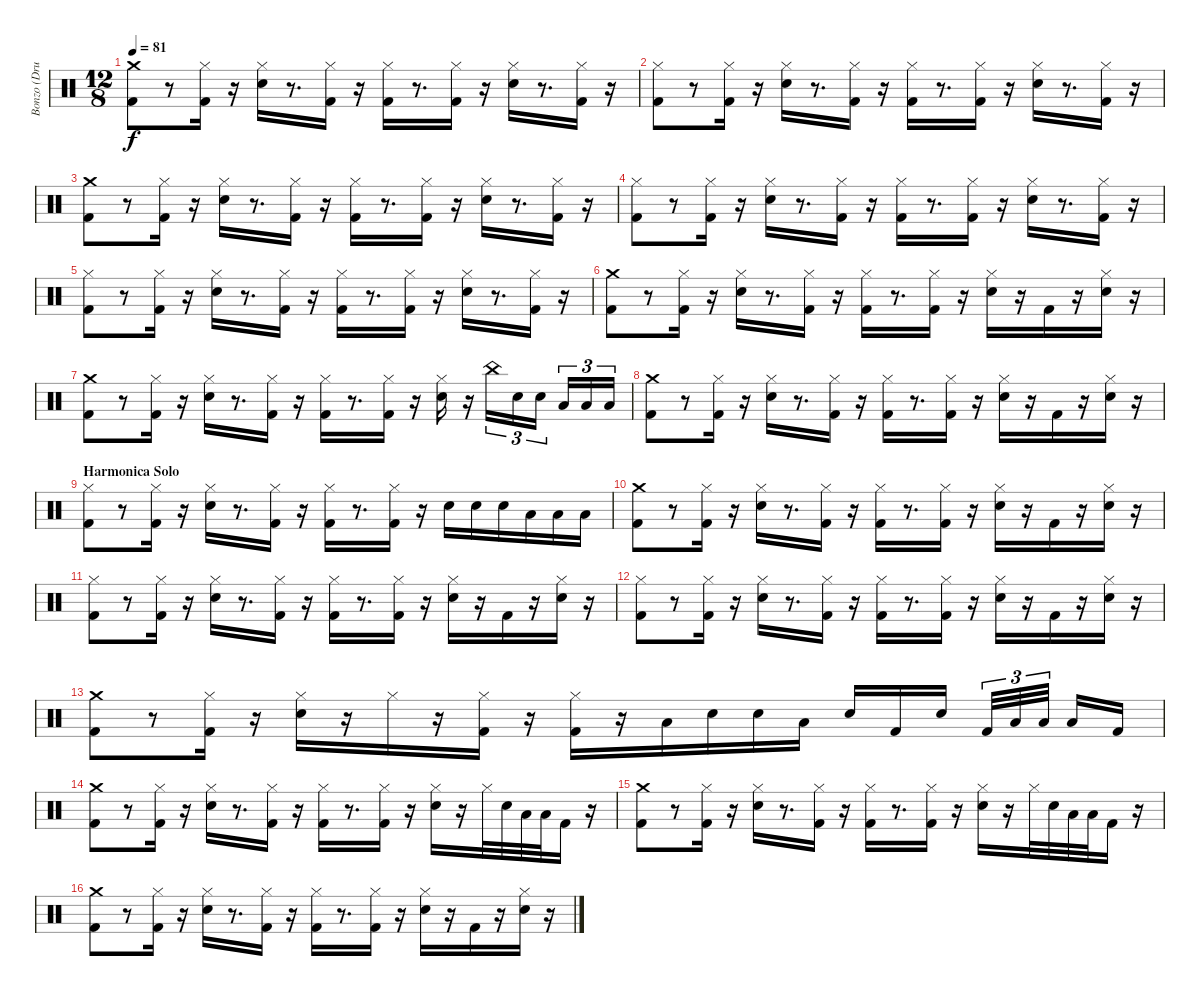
\track ("Bonzo (Drums)" "Bonzo (Dru") {instrument percussion}
\staff {score}
\articulation defaults
\ts (12 8)
\tempo 81
\clef neutral
\ks c
("Kick (hit) 2" "Crash medium (hit)").8{dy f} r.8 ("Kick (hit) 2" "Hi-Hat (closed)").16 r.16 ("Hi-Hat (closed)" "Electric Snare (hit)").16 r.8{d} ("Hi-Hat (closed)" "Kick (hit) 2").16 r.16 ("Hi-Hat (closed)" "Kick (hit) 2").16 r.8{d} ("Hi-Hat (closed)" "Kick (hit) 2").16 r.16 ("Hi-Hat (closed)" "Electric Snare (hit)").16 r.8{d} ("Hi-Hat (closed)" "Kick (hit) 2").16 r.16 |
("Kick (hit) 2" "Hi-Hat (closed)").8 r.8 ("Kick (hit) 2" "Hi-Hat (closed)").16 r.16 ("Hi-Hat (closed)" "Electric Snare (hit)").16 r.8{d} ("Hi-Hat (closed)" "Kick (hit) 2").16 r.16 ("Hi-Hat (closed)" "Kick (hit) 2").16 r.8{d} ("Hi-Hat (closed)" "Kick (hit) 2").16 r.16 ("Hi-Hat (closed)" "Electric Snare (hit)").16 r.8{d} ("Hi-Hat (closed)" "Kick (hit) 2").16 r.16 |
("Kick (hit) 2" "Crash medium (hit)").8 r.8 ("Kick (hit) 2" "Hi-Hat (closed)").16 r.16 ("Hi-Hat (closed)" "Electric Snare (hit)").16 r.8{d} ("Hi-Hat (closed)" "Kick (hit) 2").16 r.16 ("Hi-Hat (closed)" "Kick (hit) 2").16 r.8{d} ("Hi-Hat (closed)" "Kick (hit) 2").16 r.16 ("Hi-Hat (closed)" "Electric Snare (hit)").16 r.8{d} ("Hi-Hat (closed)" "Kick (hit) 2").16 r.16 |
("Kick (hit) 2" "Hi-Hat (closed)").8 r.8 ("Kick (hit) 2" "Hi-Hat (closed)").16 r.16 ("Hi-Hat (closed)" "Electric Snare (hit)").16 r.8{d} ("Hi-Hat (closed)" "Kick (hit) 2").16 r.16 ("Hi-Hat (closed)" "Kick (hit) 2").16 r.8{d} ("Hi-Hat (closed)" "Kick (hit) 2").16 r.16 ("Hi-Hat (closed)" "Electric Snare (hit)").16 r.8{d} ("Hi-Hat (closed)" "Kick (hit) 2").16 r.16 |
("Kick (hit) 2" "Hi-Hat (closed)").8 r.8 ("Kick (hit) 2" "Hi-Hat (closed)").16 r.16 ("Hi-Hat (closed)" "Electric Snare (hit)").16 r.8{d} ("Hi-Hat (closed)" "Kick (hit) 2").16 r.16 ("Hi-Hat (closed)" "Kick (hit) 2").16 r.8{d} ("Hi-Hat (closed)" "Kick (hit) 2").16 r.16 ("Hi-Hat (closed)" "Electric Snare (hit)").16 r.8{d} ("Hi-Hat (closed)" "Kick (hit) 2").16 r.16 |
("Kick (hit) 2" "Crash medium (hit)").8 r.8 ("Kick (hit) 2" "Hi-Hat (closed)").16 r.16 ("Hi-Hat (closed)" "Electric Snare (hit)").16 r.8{d} ("Hi-Hat (closed)" "Kick (hit) 2").16 r.16 ("Hi-Hat (closed)" "Kick (hit) 2").16 r.8{d} ("Hi-Hat (closed)" "Kick (hit) 2").16 r.16 ("Hi-Hat (closed)" "Electric Snare (hit)").16 r.16 "Kick (hit) 2".16 r.16 ("Hi-Hat (closed)" "Electric Snare (hit)").16 r.16 |
("Kick (hit) 2" "Crash medium (hit)").8 r.8 ("Kick (hit) 2" "Hi-Hat (closed)").16 r.16 ("Hi-Hat (closed)" "Electric Snare (hit)").16 r.8{d} ("Hi-Hat (closed)" "Kick (hit) 2").16 r.16 ("Hi-Hat (closed)" "Kick (hit) 2").16 r.8{d} ("Hi-Hat (closed)" "Kick (hit) 2").16 r.16 ("Hi-Hat (closed)" "Electric Snare (hit)").16 r.16 "China (hit)".16{tu (3 2)} "Electric Snare (hit)".16{tu (3 2)} "Electric Snare (hit)".16{tu (3 2)} "Low Tom (hit)".16{tu (3 2)} "Low Tom (hit)".16{tu (3 2)} "Low Floor Tom (hit)".16{tu (3 2)} |
("Kick (hit) 2" "Crash medium (hit)").8 r.8 ("Kick (hit) 2" "Hi-Hat (closed)").16 r.16 ("Hi-Hat (closed)" "Electric Snare (hit)").16 r.8{d} ("Hi-Hat (closed)" "Kick (hit) 2").16 r.16 ("Hi-Hat (closed)" "Kick (hit) 2").16 r.8{d} ("Hi-Hat (closed)" "Kick (hit) 2").16 r.16 ("Hi-Hat (closed)" "Electric Snare (hit)").16 r.16 "Kick (hit) 2".16 r.16 ("Hi-Hat (closed)" "Electric Snare (hit)").16 r.16 |
\section ("" "Harmonica Solo")
("Kick (hit) 2" "Hi-Hat (closed)").8 r.8 ("Kick (hit) 2" "Hi-Hat (closed)").16 r.16 ("Hi-Hat (closed)" "Electric Snare (hit)").16 r.8{d} ("Hi-Hat (closed)" "Kick (hit) 2").16 r.16 ("Hi-Hat (closed)" "Kick (hit) 2").16 r.8{d} ("Hi-Hat (closed)" "Kick (hit) 2").16 r.16 "Electric Snare (hit)".16 "Electric Snare (hit)".16 "Electric Snare (hit)".16 "Low Tom (hit)".16 "Low Floor Tom (hit)".16 "Low Floor Tom (hit)".16 |
("Kick (hit) 2" "Crash medium (hit)").8 r.8 ("Kick (hit) 2" "Hi-Hat (closed)").16 r.16 ("Hi-Hat (closed)" "Electric Snare (hit)").16 r.8{d} ("Hi-Hat (closed)" "Kick (hit) 2").16 r.16 ("Hi-Hat (closed)" "Kick (hit) 2").16 r.8{d} ("Hi-Hat (closed)" "Kick (hit) 2").16 r.16 ("Hi-Hat (closed)" "Electric Snare (hit)").16 r.16 "Kick (hit) 2".16 r.16 ("Hi-Hat (closed)" "Electric Snare (hit)").16 r.16 |
("Kick (hit) 2" "Hi-Hat (closed)").8 r.8 ("Kick (hit) 2" "Hi-Hat (closed)").16 r.16 ("Hi-Hat (closed)" "Electric Snare (hit)").16 r.8{d} ("Hi-Hat (closed)" "Kick (hit) 2").16 r.16 ("Hi-Hat (closed)" "Kick (hit) 2").16 r.8{d} ("Hi-Hat (closed)" "Kick (hit) 2").16 r.16 ("Hi-Hat (closed)" "Electric Snare (hit)").16 r.16 "Kick (hit) 2".16 r.16 ("Hi-Hat (closed)" "Electric Snare (hit)").16 r.16 |
("Kick (hit) 2" "Hi-Hat (closed)").8 r.8 ("Kick (hit) 2" "Hi-Hat (closed)").16 r.16 ("Hi-Hat (closed)" "Electric Snare (hit)").16 r.8{d} ("Hi-Hat (closed)" "Kick (hit) 2").16 r.16 ("Hi-Hat (closed)" "Kick (hit) 2").16 r.8{d} ("Hi-Hat (closed)" "Kick (hit) 2").16 r.16 ("Hi-Hat (closed)" "Electric Snare (hit)").16 r.16 "Kick (hit) 2".16 r.16 ("Hi-Hat (closed)" "Electric Snare (hit)").16 r.16 |
("Crash medium (hit)" "Kick (hit) 2").8 r.8 ("Hi-Hat (closed)" "Kick (hit) 2").16 r.16 ("Hi-Hat (closed)" "Electric Snare (hit)").16 r.16 "Hi-Hat (closed)".16 r.16 ("Hi-Hat (closed)" "Kick (hit) 2").16 r.16 ("Hi-Hat (closed)" "Kick (hit) 2").16 r.16 "Low Tom (hit)".16 "Electric Snare (hit)".16 "Electric Snare (hit)".16 "Low Tom (hit)".16 "Electric Snare (hit)".16 "Kick (hit) 2".16 "Electric Snare (hit)".16 "Kick (hit) 2".32{tu (3 2)} "Low Tom (hit)".32{tu (3 2)} "Low Floor Tom (hit)".32{tu (3 2)} "Low Tom (hit)".16 "Kick (hit) 2".16 |
("Kick (hit) 2" "Crash medium (hit)").8 r.8 ("Kick (hit) 2" "Hi-Hat (closed)").16 r.16 ("Hi-Hat (closed)" "Electric Snare (hit)").16 r.8{d} ("Hi-Hat (closed)" "Kick (hit) 2").16 r.16 ("Hi-Hat (closed)" "Kick (hit) 2").16 r.8{d} ("Hi-Hat (closed)" "Kick (hit) 2").16 r.16 ("Hi-Hat (closed)" "Electric Snare (hit)").16 r.16 "Hi-Hat (closed)".32 "Electric Snare (hit)".32 "Low Tom (hit)".32 "Low Floor Tom (hit)".32 "Kick (hit) 2".16 r.16 |
("Kick (hit) 2" "Crash medium (hit)").8 r.8 ("Kick (hit) 2" "Hi-Hat (closed)").16 r.16 ("Hi-Hat (closed)" "Electric Snare (hit)").16 r.8{d} ("Hi-Hat (closed)" "Kick (hit) 2").16 r.16 ("Hi-Hat (closed)" "Kick (hit) 2").16 r.8{d} ("Hi-Hat (closed)" "Kick (hit) 2").16 r.16 ("Hi-Hat (closed)" "Electric Snare (hit)").16 r.16 "Hi-Hat (closed)".32 "Electric Snare (hit)".32 "Low Tom (hit)".32 "Low Floor Tom (hit)".32 "Kick (hit) 2".16 r.16 |
("Kick (hit) 2" "Crash medium (hit)").8 r.8 ("Kick (hit) 2" "Hi-Hat (closed)").16 r.16 ("Hi-Hat (closed)" "Electric Snare (hit)").16 r.8{d} ("Hi-Hat (closed)" "Kick (hit) 2").16 r.16 ("Hi-Hat (closed)" "Kick (hit) 2").16 r.8{d} ("Hi-Hat (closed)" "Kick (hit) 2").16 r.16 ("Hi-Hat (closed)" "Electric Snare (hit)").16 r.16 "Kick (hit) 2".16 r.16 ("Hi-Hat (closed)" "Electric Snare (hit)").16 r.16
